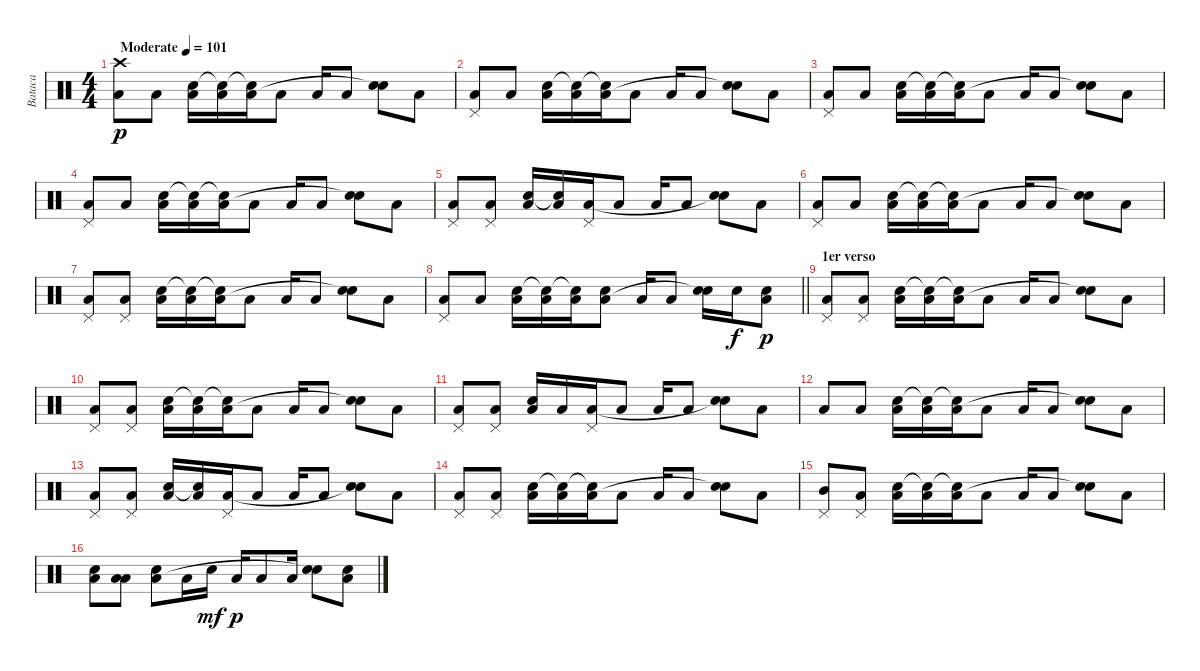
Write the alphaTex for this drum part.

\track ("Bataca" "Bataca") {instrument percussion}
\staff {score}
\articulation defaults
\ts (4 4)
\tempo (101 "Moderate")
\clef neutral
\ks c
("Crash high (hit)" "Low Tom (hit)").8{dy p} "Low Tom (hit)".8 ("Snare (hit) 2" "Low Floor Tom (hit)").16 ("Snare (hit)"{t} "Low Floor Tom (hit)").16 ("Snare (hit)"{t} "Low Tom (hit)").16 "Low Tom (hit)".8 "Low Floor Tom (hit)".16 "Low Floor Tom (hit)".8 ("Snare (hit) 2" "Snare (hit)"{t}).8 "Low Floor Tom (hit)".8 |
("Pedal Hi-Hat (hit)" "Low Tom (hit)").8 "Low Tom (hit)".8 ("Snare (hit) 2" "Low Floor Tom (hit)").16 ("Snare (hit)"{t} "Low Floor Tom (hit)").16 ("Snare (hit)"{t} "Low Tom (hit)").16 "Low Tom (hit)".8 "Low Floor Tom (hit)".16 "Low Floor Tom (hit)".8 ("Snare (hit) 2" "Snare (hit)"{t}).8 "Low Floor Tom (hit)".8 |
("Pedal Hi-Hat (hit)" "Low Tom (hit)").8 "Low Tom (hit)".8 ("Snare (hit) 2" "Low Floor Tom (hit)").16 ("Snare (hit)"{t} "Low Floor Tom (hit)").16 ("Snare (hit)"{t} "Low Tom (hit)").16 "Low Tom (hit)".8 "Low Floor Tom (hit)".16 "Low Floor Tom (hit)".8 ("Snare (hit) 2" "Snare (hit)"{t}).8 "Low Floor Tom (hit)".8 |
("Pedal Hi-Hat (hit)" "Low Tom (hit)").8 "Low Tom (hit)".8 ("Snare (hit) 2" "Low Floor Tom (hit)").16 ("Snare (hit)"{t} "Low Floor Tom (hit)").16 ("Snare (hit)"{t} "Low Tom (hit)").16 "Low Tom (hit)".8 "Low Floor Tom (hit)".16 "Low Floor Tom (hit)".8 ("Snare (hit) 2" "Snare (hit)"{t}).8 "Low Floor Tom (hit)".8 |
("Pedal Hi-Hat (hit)" "Low Tom (hit)").8 ("Pedal Hi-Hat (hit)" "Low Tom (hit)").8 ("Snare (hit) 2" "Low Floor Tom (hit)").16 ("Snare (hit)"{t} "Low Floor Tom (hit)").16 ("Pedal Hi-Hat (hit)" "Low Tom (hit)").16 "Low Tom (hit)".8 "Low Floor Tom (hit)".16 "Low Floor Tom (hit)".8 ("Snare (hit) 2" "Snare (hit)"{t}).8 "Low Floor Tom (hit)".8 |
("Pedal Hi-Hat (hit)" "Low Tom (hit)").8 "Low Tom (hit)".8 ("Snare (hit) 2" "Low Floor Tom (hit)").16 ("Snare (hit)"{t} "Low Floor Tom (hit)").16 ("Snare (hit)"{t} "Low Tom (hit)").16 "Low Tom (hit)".8 "Low Floor Tom (hit)".16 "Low Floor Tom (hit)".8 ("Snare (hit) 2" "Snare (hit)"{t}).8 "Low Floor Tom (hit)".8 |
("Pedal Hi-Hat (hit)" "Low Tom (hit)").8 ("Pedal Hi-Hat (hit)" "Low Tom (hit)").8 ("Snare (hit) 2" "Low Floor Tom (hit)").16 ("Snare (hit)"{t} "Low Floor Tom (hit)").16 ("Snare (hit)"{t} "Low Tom (hit)").16 "Low Tom (hit)".8 "Low Floor Tom (hit)".16 "Low Floor Tom (hit)".8 ("Snare (hit) 2" "Snare (hit)"{t}).8 "Low Floor Tom (hit)".8 |
\barLineRight lightlight
("Pedal Hi-Hat (hit)" "Low Tom (hit)").8 "Low Tom (hit)".8 ("Snare (hit) 2" "Low Floor Tom (hit)").16 ("Snare (hit)"{t} "Low Floor Tom (hit)").16 ("Snare (hit)"{t} "Low Tom (hit)").16 ("Snare (hit) 2" "Low Tom (hit)").8 "Low Floor Tom (hit)".16 "Low Floor Tom (hit)".8 ("Snare (hit) 2" "Snare (hit)"{t}).16 "Snare (hit) 2".16{dy f} ("Snare (hit) 2" "Low Floor Tom (hit)").8{dy p} |
\section ("" "1er verso")
("Pedal Hi-Hat (hit)" "Low Tom (hit)").8 ("Pedal Hi-Hat (hit)" "Low Tom (hit)").8 ("Snare (hit) 2" "Low Floor Tom (hit)").16 ("Snare (hit)"{t} "Low Floor Tom (hit)").16 ("Snare (hit)"{t} "Low Tom (hit)").16 "Low Tom (hit)".8 "Low Floor Tom (hit)".16 "Low Floor Tom (hit)".8 ("Snare (hit) 2" "Snare (hit)"{t}).8 "Low Floor Tom (hit)".8 |
("Pedal Hi-Hat (hit)" "Low Tom (hit)").8 ("Pedal Hi-Hat (hit)" "Low Tom (hit)").8 ("Snare (hit) 2" "Low Floor Tom (hit)").16 ("Snare (hit)"{t} "Low Floor Tom (hit)").16 ("Snare (hit)"{t} "Low Tom (hit)").16 "Low Tom (hit)".8 "Low Floor Tom (hit)".16 "Low Floor Tom (hit)".8 ("Snare (hit) 2" "Snare (hit)"{t}).8 "Low Floor Tom (hit)".8 |
("Pedal Hi-Hat (hit)" "Low Tom (hit)").8 ("Pedal Hi-Hat (hit)" "Low Tom (hit)").8 ("Snare (hit) 2" "Low Floor Tom (hit)").16 "Low Floor Tom (hit)".16 ("Pedal Hi-Hat (hit)" "Low Tom (hit)").16 "Low Tom (hit)".8 "Low Floor Tom (hit)".16 "Low Floor Tom (hit)".8 ("Snare (hit) 2" "Snare (hit)"{t}).8 "Low Floor Tom (hit)".8 |
"Low Tom (hit)".8 "Low Tom (hit)".8 ("Snare (hit) 2" "Low Floor Tom (hit)").16 ("Snare (hit)"{t} "Low Floor Tom (hit)").16 ("Snare (hit)"{t} "Low Tom (hit)").16 "Low Tom (hit)".8 "Low Floor Tom (hit)".16 "Low Floor Tom (hit)".8 ("Snare (hit) 2" "Snare (hit)"{t}).8 "Low Floor Tom (hit)".8 |
("Pedal Hi-Hat (hit)" "Low Tom (hit)").8 ("Pedal Hi-Hat (hit)" "Low Tom (hit)").8 ("Snare (hit) 2" "Low Floor Tom (hit)").16 ("Snare (hit)"{t} "Low Floor Tom (hit)").16 ("Pedal Hi-Hat (hit)" "Low Tom (hit)").16 "Low Tom (hit)".8 "Low Floor Tom (hit)".16 "Low Floor Tom (hit)".8 ("Snare (hit) 2" "Snare (hit)"{t}).8 "Low Floor Tom (hit)".8 |
("Pedal Hi-Hat (hit)" "Low Tom (hit)").8 ("Pedal Hi-Hat (hit)" "Low Tom (hit)").8 ("Snare (hit) 2" "Low Floor Tom (hit)").16 ("Snare (hit)"{t} "Low Floor Tom (hit)").16 ("Snare (hit)"{t} "Low Tom (hit)").16 "Low Tom (hit)".8 "Low Floor Tom (hit)".16 "Low Floor Tom (hit)".8 ("Snare (hit) 2" "Snare (hit)"{t}).8 "Low Floor Tom (hit)".8 |
("Pedal Hi-Hat (hit)" "Mid Tom (hit)").8 ("Pedal Hi-Hat (hit)" "Low Tom (hit)").8 ("Snare (hit) 2" "Low Floor Tom (hit)").16 ("Snare (hit)"{t} "Low Floor Tom (hit)").16 ("Snare (hit)"{t} "Low Tom (hit)").16 "Low Tom (hit)".8 "Low Floor Tom (hit)".16 "Low Floor Tom (hit)".8 ("Snare (hit) 2" "Snare (hit)"{t}).8 "Low Floor Tom (hit)".8 |
("Electric Snare (hit)" "Low Tom (hit)").8 ("Low Tom (hit)" "Low Tom (hit)").8 ("Snare (hit) 2" "Low Floor Tom (hit)").8 "Low Tom (hit)".16 "Electric Snare (hit)".16{dy mf} "Low Floor Tom (hit)".16{dy p} "Low Floor Tom (hit)".8 "Low Floor Tom (hit)".16 ("Electric Snare (hit)" "Snare (hit)"{t}).8 ("Electric Snare (hit)" "Low Floor Tom (hit)").8
